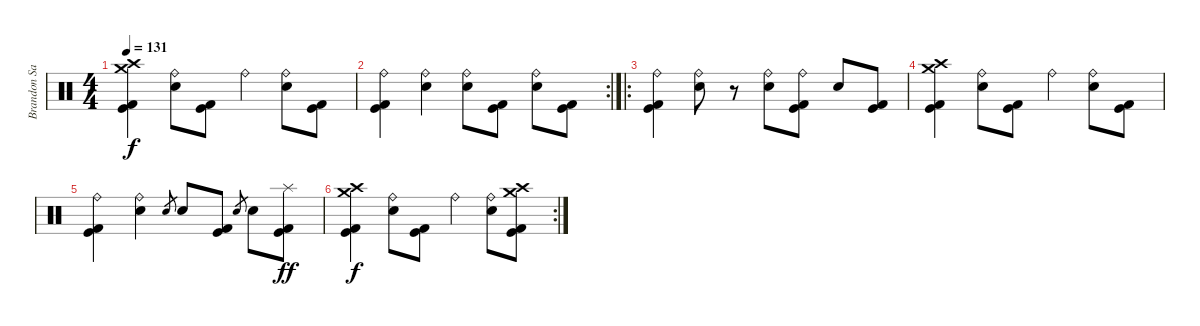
\track ("Brandon Saller" "Brandon Sa") {instrument percussion}
\staff {score}
\articulation defaults
\ts (4 4)
\tempo 131
\clef neutral
\ks c
("Crash medium (hit)" "Crash high (hit)" "Kick (hit) 2" "Kick (hit)").4{dy f} ("Ride (bell)" "Electric Snare (hit)").8 ("Kick (hit) 2" "Kick (hit)").8 "Ride (bell)".4 ("Ride (bell)" "Electric Snare (hit)").8 ("Kick (hit) 2" "Kick (hit)").8 |
\rc 2
("Ride (bell)" "Kick (hit) 2" "Kick (hit)").4 ("Ride (bell)" "Electric Snare (hit)").4 ("Ride (bell)" "Electric Snare (hit)").8 ("Kick (hit) 2" "Kick (hit)").8 ("Ride (bell)" "Electric Snare (hit)").8 ("Kick (hit) 2" "Kick (hit)").8 |
\ro
("Ride (bell)" "Kick (hit) 2" "Kick (hit)").4 ("Ride (bell)" "Electric Snare (hit)").8 r.8 ("Ride (bell)" "Electric Snare (hit)").8 ("Ride (bell)" "Kick (hit) 2" "Kick (hit)").8 "Electric Snare (hit)".8 ("Kick (hit) 2" "Kick (hit)").8 |
("Crash medium (hit)" "Crash high (hit)" "Kick (hit) 2" "Kick (hit)").4 ("Ride (bell)" "Electric Snare (hit)").8 ("Kick (hit) 2" "Kick (hit)").8 "Ride (bell)".4 ("Ride (bell)" "Electric Snare (hit)").8 ("Kick (hit)" "Kick (hit) 2").8 |
("Ride (bell)" "Kick (hit) 2" "Kick (hit)").4 ("Ride (bell)" "Electric Snare (hit)").4 "Electric Snare (hit)".8{gr} "Electric Snare (hit)".8 ("Kick (hit) 2" "Kick (hit)").8 "Electric Snare (hit)".8{gr} "Electric Snare (hit)".8 ("Splash (hit)" "Kick (hit) 2" "Kick (hit)").8{dy ff} |
\rc 2
("Crash medium (hit)" "Crash high (hit)" "Kick (hit) 2" "Kick (hit)").4{dy f} ("Ride (bell)" "Electric Snare (hit)").8 ("Kick (hit) 2" "Kick (hit)").8 "Ride (bell)".4 ("Ride (bell)" "Electric Snare (hit)").8 ("Crash medium (hit)" "Crash high (hit)" "Kick (hit) 2" "Kick (hit)").8
